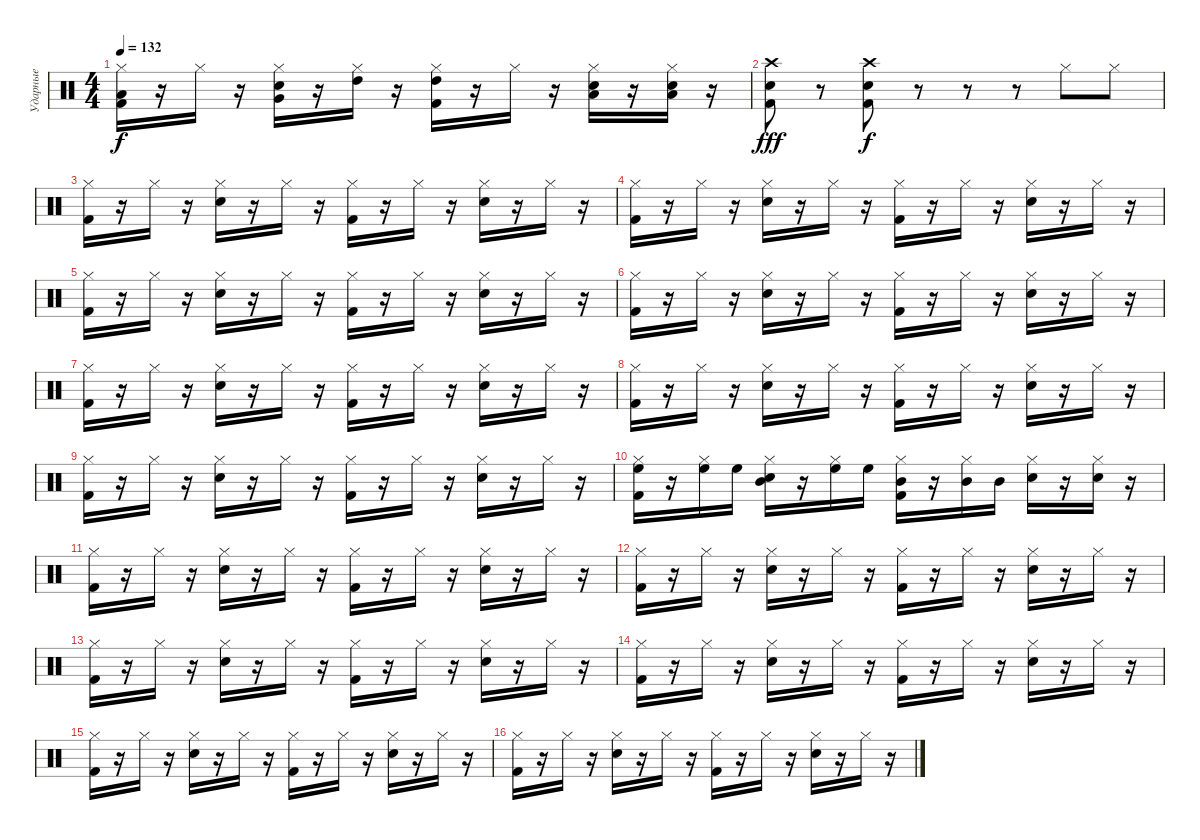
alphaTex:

\track ("Ударные" "Ударные") {instrument percussion}
\staff {score}
\articulation defaults
\ts (4 4)
\tempo 132
\clef neutral
\ks c
("Kick (hit) 2" "Low Tom (hit)" "Hi-Hat (closed)").16{dy f} r.16 "Hi-Hat (closed)".16 r.16 ("Snare (hit) 2" "Very Low Tom (hit)" "Hi-Hat (closed)").16 r.16 ("High Tom (hit)" "Hi-Hat (closed)").16 r.16 ("Kick (hit) 2" "High Tom (hit)" "Hi-Hat (closed)").16 r.16 "Hi-Hat (closed)".16 r.16 ("Snare (hit) 2" "Low Floor Tom (hit)" "Hi-Hat (closed)").16 r.16 ("Snare (hit) 2" "Low Floor Tom (hit)" "Hi-Hat (closed)").16 r.16 |
("Kick (hit) 2" "Snare (hit) 2" "Crash high (hit)").8{dy fff} r.8 ("Kick (hit) 2" "Snare (hit) 2" "Crash high (hit)").8{dy f} r.8 r.8 r.8 "Hi-Hat (closed)".8 "Hi-Hat (closed)".8 |
("Kick (hit) 2" "Hi-Hat (closed)").16 r.16 "Hi-Hat (closed)".16 r.16 ("Snare (hit) 2" "Hi-Hat (closed)").16 r.16 "Hi-Hat (closed)".16 r.16 ("Kick (hit) 2" "Hi-Hat (closed)").16 r.16 "Hi-Hat (closed)".16 r.16 ("Snare (hit) 2" "Hi-Hat (closed)").16 r.16 "Hi-Hat (closed)".16 r.16 |
("Kick (hit) 2" "Hi-Hat (closed)").16 r.16 "Hi-Hat (closed)".16 r.16 ("Snare (hit) 2" "Hi-Hat (closed)").16 r.16 "Hi-Hat (closed)".16 r.16 ("Kick (hit) 2" "Hi-Hat (closed)").16 r.16 "Hi-Hat (closed)".16 r.16 ("Snare (hit) 2" "Hi-Hat (closed)").16 r.16 "Hi-Hat (closed)".16 r.16 |
("Kick (hit) 2" "Hi-Hat (closed)").16 r.16 "Hi-Hat (closed)".16 r.16 ("Snare (hit) 2" "Hi-Hat (closed)").16 r.16 "Hi-Hat (closed)".16 r.16 ("Kick (hit) 2" "Hi-Hat (closed)").16 r.16 "Hi-Hat (closed)".16 r.16 ("Snare (hit) 2" "Hi-Hat (closed)").16 r.16 "Hi-Hat (closed)".16 r.16 |
("Kick (hit) 2" "Hi-Hat (closed)").16 r.16 "Hi-Hat (closed)".16 r.16 ("Snare (hit) 2" "Hi-Hat (closed)").16 r.16 "Hi-Hat (closed)".16 r.16 ("Kick (hit) 2" "Hi-Hat (closed)").16 r.16 "Hi-Hat (closed)".16 r.16 ("Snare (hit) 2" "Hi-Hat (closed)").16 r.16 "Hi-Hat (closed)".16 r.16 |
("Kick (hit) 2" "Hi-Hat (closed)").16 r.16 "Hi-Hat (closed)".16 r.16 ("Snare (hit) 2" "Hi-Hat (closed)").16 r.16 "Hi-Hat (closed)".16 r.16 ("Kick (hit) 2" "Hi-Hat (closed)").16 r.16 "Hi-Hat (closed)".16 r.16 ("Snare (hit) 2" "Hi-Hat (closed)").16 r.16 "Hi-Hat (closed)".16 r.16 |
("Kick (hit) 2" "Hi-Hat (closed)").16 r.16 "Hi-Hat (closed)".16 r.16 ("Snare (hit) 2" "Hi-Hat (closed)").16 r.16 "Hi-Hat (closed)".16 r.16 ("Kick (hit) 2" "Hi-Hat (closed)").16 r.16 "Hi-Hat (closed)".16 r.16 ("Snare (hit) 2" "Hi-Hat (closed)").16 r.16 "Hi-Hat (closed)".16 r.16 |
("Kick (hit) 2" "Hi-Hat (closed)").16 r.16 "Hi-Hat (closed)".16 r.16 ("Snare (hit) 2" "Hi-Hat (closed)").16 r.16 "Hi-Hat (closed)".16 r.16 ("Kick (hit) 2" "Hi-Hat (closed)").16 r.16 "Hi-Hat (closed)".16 r.16 ("Snare (hit) 2" "Hi-Hat (closed)").16 r.16 "Hi-Hat (closed)".16 r.16 |
("Kick (hit) 2" "High Floor Tom (hit)" "Hi-Hat (closed)").16 r.16 ("High Floor Tom (hit)" "Hi-Hat (closed)").16 "High Floor Tom (hit)".16 ("Snare (hit) 2" "Mid Tom (hit)" "Hi-Hat (closed)").16 r.16 ("High Floor Tom (hit)" "Hi-Hat (closed)").16 "High Floor Tom (hit)".16 ("Kick (hit) 2" "Mid Tom (hit)" "Hi-Hat (closed)").16 r.16 ("Mid Tom (hit)" "Hi-Hat (closed)").16 "Mid Tom (hit)".16 ("Snare (hit) 2" "Hi-Hat (closed)").16 r.16 ("Snare (hit) 2" "Hi-Hat (closed)").16 r.16 |
("Kick (hit) 2" "Hi-Hat (closed)").16 r.16 "Hi-Hat (closed)".16 r.16 ("Snare (hit) 2" "Hi-Hat (closed)").16 r.16 "Hi-Hat (closed)".16 r.16 ("Kick (hit) 2" "Hi-Hat (closed)").16 r.16 "Hi-Hat (closed)".16 r.16 ("Snare (hit) 2" "Hi-Hat (closed)").16 r.16 "Hi-Hat (closed)".16 r.16 |
("Kick (hit) 2" "Hi-Hat (closed)").16 r.16 "Hi-Hat (closed)".16 r.16 ("Snare (hit) 2" "Hi-Hat (closed)").16 r.16 "Hi-Hat (closed)".16 r.16 ("Kick (hit) 2" "Hi-Hat (closed)").16 r.16 "Hi-Hat (closed)".16 r.16 ("Snare (hit) 2" "Hi-Hat (closed)").16 r.16 "Hi-Hat (closed)".16 r.16 |
("Kick (hit) 2" "Hi-Hat (closed)").16 r.16 "Hi-Hat (closed)".16 r.16 ("Snare (hit) 2" "Hi-Hat (closed)").16 r.16 "Hi-Hat (closed)".16 r.16 ("Kick (hit) 2" "Hi-Hat (closed)").16 r.16 "Hi-Hat (closed)".16 r.16 ("Snare (hit) 2" "Hi-Hat (closed)").16 r.16 "Hi-Hat (closed)".16 r.16 |
("Kick (hit) 2" "Hi-Hat (closed)").16 r.16 "Hi-Hat (closed)".16 r.16 ("Snare (hit) 2" "Hi-Hat (closed)").16 r.16 "Hi-Hat (closed)".16 r.16 ("Kick (hit) 2" "Hi-Hat (closed)").16 r.16 "Hi-Hat (closed)".16 r.16 ("Snare (hit) 2" "Hi-Hat (closed)").16 r.16 "Hi-Hat (closed)".16 r.16 |
("Kick (hit) 2" "Hi-Hat (closed)").16 r.16 "Hi-Hat (closed)".16 r.16 ("Snare (hit) 2" "Hi-Hat (closed)").16 r.16 "Hi-Hat (closed)".16 r.16 ("Kick (hit) 2" "Hi-Hat (closed)").16 r.16 "Hi-Hat (closed)".16 r.16 ("Snare (hit) 2" "Hi-Hat (closed)").16 r.16 "Hi-Hat (closed)".16 r.16 |
("Kick (hit) 2" "Hi-Hat (closed)").16 r.16 "Hi-Hat (closed)".16 r.16 ("Snare (hit) 2" "Hi-Hat (closed)").16 r.16 "Hi-Hat (closed)".16 r.16 ("Kick (hit) 2" "Hi-Hat (closed)").16 r.16 "Hi-Hat (closed)".16 r.16 ("Snare (hit) 2" "Hi-Hat (closed)").16 r.16 "Hi-Hat (closed)".16 r.16
